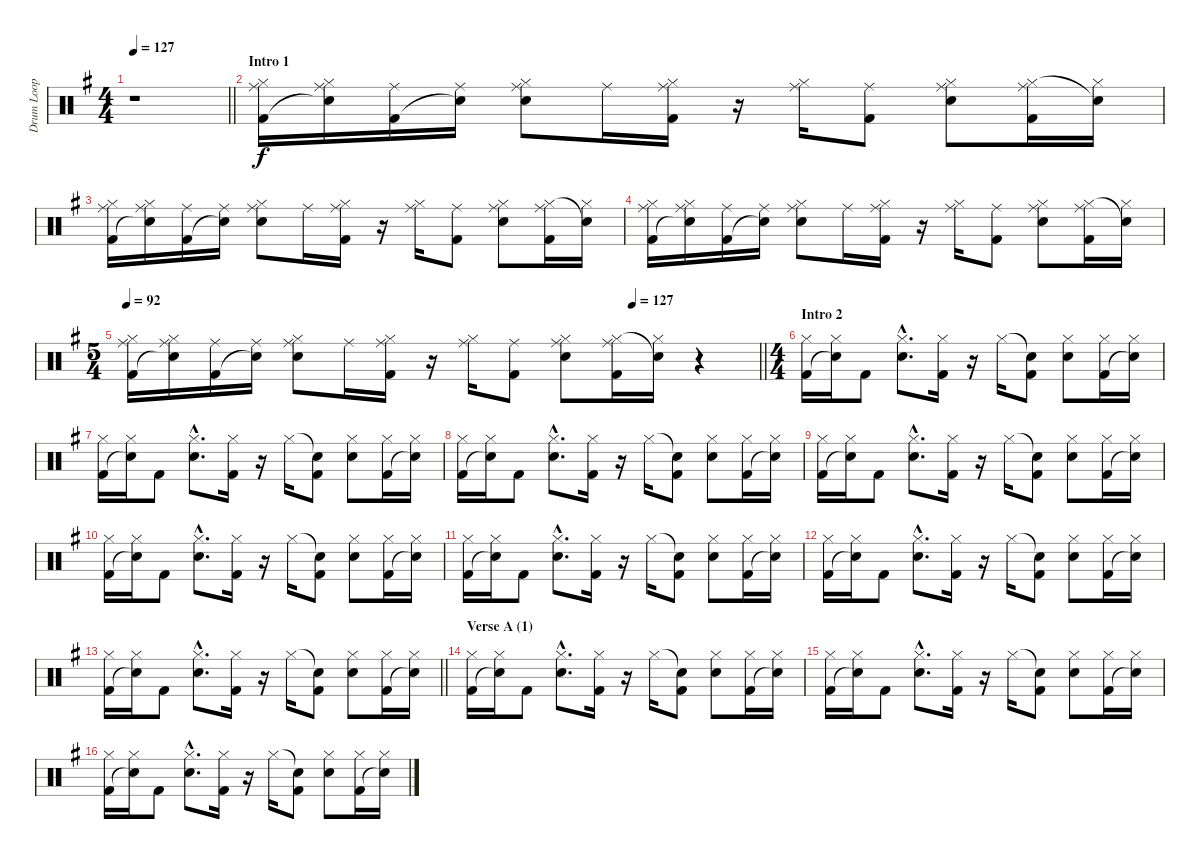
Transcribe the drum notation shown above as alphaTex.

\track ("Drum Loop" "Drum Loop") {instrument percussion}
\staff {score}
\articulation defaults
\ts (4 4)
\tempo 127
\clef neutral
\barLineRight lightlight
\ks eminor
r.1{dy f} |
\section ("" "Intro 1")
("Ride (middle)" "Hi-Hat (closed)" "Kick (hit) 2").16 ("Ride (middle)" "Hi-Hat (closed)" "Snare (hit)"{t}).16 ("Ride (middle)" "Kick (hit) 2").16 ("Ride (middle)" "Snare (hit)"{t}).16 ("Ride (middle)" "Hi-Hat (closed)" "Electric Snare (hit)").8 "Ride (middle)".16 ("Ride (middle)" "Hi-Hat (closed)" "Kick (hit) 2").16 r.16 ("Ride (middle)" "Hi-Hat (closed)").16 ("Ride (middle)" "Kick (hit) 2").8 ("Ride (middle)" "Hi-Hat (closed)" "Electric Snare (hit)").8 ("Ride (middle)" "Hi-Hat (closed)" "Kick (hit) 2").16 ("Hi-Hat (closed)" "Snare (hit)"{t}).16 |
("Ride (middle)" "Hi-Hat (closed)" "Kick (hit) 2").16 ("Ride (middle)" "Hi-Hat (closed)" "Snare (hit)"{t}).16 ("Ride (middle)" "Kick (hit) 2").16 ("Ride (middle)" "Snare (hit)"{t}).16 ("Ride (middle)" "Hi-Hat (closed)" "Electric Snare (hit)").8 "Ride (middle)".16 ("Ride (middle)" "Hi-Hat (closed)" "Kick (hit) 2").16 r.16 ("Ride (middle)" "Hi-Hat (closed)").16 ("Ride (middle)" "Kick (hit) 2").8 ("Ride (middle)" "Hi-Hat (closed)" "Electric Snare (hit)").8 ("Ride (middle)" "Hi-Hat (closed)" "Kick (hit) 2").16 ("Hi-Hat (closed)" "Snare (hit)"{t}).16 |
("Ride (middle)" "Hi-Hat (closed)" "Kick (hit) 2").16 ("Ride (middle)" "Hi-Hat (closed)" "Snare (hit)"{t}).16 ("Ride (middle)" "Kick (hit) 2").16 ("Ride (middle)" "Snare (hit)"{t}).16 ("Ride (middle)" "Hi-Hat (closed)" "Electric Snare (hit)").8 "Ride (middle)".16 ("Ride (middle)" "Hi-Hat (closed)" "Kick (hit) 2").16 r.16 ("Ride (middle)" "Hi-Hat (closed)").16 ("Ride (middle)" "Kick (hit) 2").8 ("Ride (middle)" "Hi-Hat (closed)" "Electric Snare (hit)").8 ("Ride (middle)" "Hi-Hat (closed)" "Kick (hit) 2").16 ("Hi-Hat (closed)" "Snare (hit)"{t}).16 |
\ts (5 4)
\tempo 92
\tempo (127 0.8)
\barLineRight lightlight
("Ride (middle)" "Hi-Hat (closed)" "Kick (hit) 2").16 ("Ride (middle)" "Hi-Hat (closed)" "Snare (hit)"{t}).16 ("Ride (middle)" "Kick (hit) 2").16 ("Ride (middle)" "Snare (hit)"{t}).16 ("Ride (middle)" "Hi-Hat (closed)" "Electric Snare (hit)").8 "Ride (middle)".16 ("Ride (middle)" "Hi-Hat (closed)" "Kick (hit) 2").16 r.16 ("Ride (middle)" "Hi-Hat (closed)").16 ("Ride (middle)" "Kick (hit) 2").8 ("Ride (middle)" "Hi-Hat (closed)" "Electric Snare (hit)").8 ("Ride (middle)" "Hi-Hat (closed)" "Kick (hit) 2").16 ("Hi-Hat (closed)" "Snare (hit)"{t}).16 r.4 |
\ts (4 4)
\section ("" "Intro 2")
("Hi-Hat (closed)" "Kick (hit) 2").16 ("Hi-Hat (closed)" "Snare (hit)"{t}).16 "Kick (hit) 2".8 ("Hi-Hat (closed)"{hac} "Electric Snare (hit)"{hac}).8{d} ("Hi-Hat (closed)" "Kick (hit) 2").16 r.16 "Hi-Hat (closed)".16 ("Snare (hit)"{t} "Kick (hit) 2").8 ("Hi-Hat (closed)" "Electric Snare (hit)").8 ("Hi-Hat (closed)" "Kick (hit) 2").16 ("Hi-Hat (closed)" "Snare (hit)"{t}).16 |
("Hi-Hat (closed)" "Kick (hit) 2").16 ("Hi-Hat (closed)" "Snare (hit)"{t}).16 "Kick (hit) 2".8 ("Hi-Hat (closed)"{hac} "Electric Snare (hit)"{hac}).8{d} ("Hi-Hat (closed)" "Kick (hit) 2").16 r.16 "Hi-Hat (closed)".16 ("Snare (hit)"{t} "Kick (hit) 2").8 ("Hi-Hat (closed)" "Electric Snare (hit)").8 ("Hi-Hat (closed)" "Kick (hit) 2").16 ("Hi-Hat (closed)" "Snare (hit)"{t}).16 |
("Hi-Hat (closed)" "Kick (hit) 2").16 ("Hi-Hat (closed)" "Snare (hit)"{t}).16 "Kick (hit) 2".8 ("Hi-Hat (closed)"{hac} "Electric Snare (hit)"{hac}).8{d} ("Hi-Hat (closed)" "Kick (hit) 2").16 r.16 "Hi-Hat (closed)".16 ("Snare (hit)"{t} "Kick (hit) 2").8 ("Hi-Hat (closed)" "Electric Snare (hit)").8 ("Hi-Hat (closed)" "Kick (hit) 2").16 ("Hi-Hat (closed)" "Snare (hit)"{t}).16 |
("Hi-Hat (closed)" "Kick (hit) 2").16 ("Hi-Hat (closed)" "Snare (hit)"{t}).16 "Kick (hit) 2".8 ("Hi-Hat (closed)"{hac} "Electric Snare (hit)"{hac}).8{d} ("Hi-Hat (closed)" "Kick (hit) 2").16 r.16 "Hi-Hat (closed)".16 ("Snare (hit)"{t} "Kick (hit) 2").8 ("Hi-Hat (closed)" "Electric Snare (hit)").8 ("Hi-Hat (closed)" "Kick (hit) 2").16 ("Hi-Hat (closed)" "Snare (hit)"{t}).16 |
("Hi-Hat (closed)" "Kick (hit) 2").16 ("Hi-Hat (closed)" "Snare (hit)"{t}).16 "Kick (hit) 2".8 ("Hi-Hat (closed)"{hac} "Electric Snare (hit)"{hac}).8{d} ("Hi-Hat (closed)" "Kick (hit) 2").16 r.16 "Hi-Hat (closed)".16 ("Snare (hit)"{t} "Kick (hit) 2").8 ("Hi-Hat (closed)" "Electric Snare (hit)").8 ("Hi-Hat (closed)" "Kick (hit) 2").16 ("Hi-Hat (closed)" "Snare (hit)"{t}).16 |
("Hi-Hat (closed)" "Kick (hit) 2").16 ("Hi-Hat (closed)" "Snare (hit)"{t}).16 "Kick (hit) 2".8 ("Hi-Hat (closed)"{hac} "Electric Snare (hit)"{hac}).8{d} ("Hi-Hat (closed)" "Kick (hit) 2").16 r.16 "Hi-Hat (closed)".16 ("Snare (hit)"{t} "Kick (hit) 2").8 ("Hi-Hat (closed)" "Electric Snare (hit)").8 ("Hi-Hat (closed)" "Kick (hit) 2").16 ("Hi-Hat (closed)" "Snare (hit)"{t}).16 |
("Hi-Hat (closed)" "Kick (hit) 2").16 ("Hi-Hat (closed)" "Snare (hit)"{t}).16 "Kick (hit) 2".8 ("Hi-Hat (closed)"{hac} "Electric Snare (hit)"{hac}).8{d} ("Hi-Hat (closed)" "Kick (hit) 2").16 r.16 "Hi-Hat (closed)".16 ("Snare (hit)"{t} "Kick (hit) 2").8 ("Hi-Hat (closed)" "Electric Snare (hit)").8 ("Hi-Hat (closed)" "Kick (hit) 2").16 ("Hi-Hat (closed)" "Snare (hit)"{t}).16 |
\barLineRight lightlight
("Hi-Hat (closed)" "Kick (hit) 2").16 ("Hi-Hat (closed)" "Snare (hit)"{t}).16 "Kick (hit) 2".8 ("Hi-Hat (closed)"{hac} "Electric Snare (hit)"{hac}).8{d} ("Hi-Hat (closed)" "Kick (hit) 2").16 r.16 "Hi-Hat (closed)".16 ("Snare (hit)"{t} "Kick (hit) 2").8 ("Hi-Hat (closed)" "Electric Snare (hit)").8 ("Hi-Hat (closed)" "Kick (hit) 2").16 ("Hi-Hat (closed)" "Snare (hit)"{t}).16 |
\section ("" "Verse A (1)")
("Hi-Hat (closed)" "Kick (hit) 2").16 ("Hi-Hat (closed)" "Snare (hit)"{t}).16 "Kick (hit) 2".8 ("Hi-Hat (closed)"{hac} "Electric Snare (hit)"{hac}).8{d} ("Hi-Hat (closed)" "Kick (hit) 2").16 r.16 "Hi-Hat (closed)".16 ("Snare (hit)"{t} "Kick (hit) 2").8 ("Hi-Hat (closed)" "Electric Snare (hit)").8 ("Hi-Hat (closed)" "Kick (hit) 2").16 ("Hi-Hat (closed)" "Snare (hit)"{t}).16 |
("Hi-Hat (closed)" "Kick (hit) 2").16 ("Hi-Hat (closed)" "Snare (hit)"{t}).16 "Kick (hit) 2".8 ("Hi-Hat (closed)"{hac} "Electric Snare (hit)"{hac}).8{d} ("Hi-Hat (closed)" "Kick (hit) 2").16 r.16 "Hi-Hat (closed)".16 ("Snare (hit)"{t} "Kick (hit) 2").8 ("Hi-Hat (closed)" "Electric Snare (hit)").8 ("Hi-Hat (closed)" "Kick (hit) 2").16 ("Hi-Hat (closed)" "Snare (hit)"{t}).16 |
("Hi-Hat (closed)" "Kick (hit) 2").16 ("Hi-Hat (closed)" "Snare (hit)"{t}).16 "Kick (hit) 2".8 ("Hi-Hat (closed)"{hac} "Electric Snare (hit)"{hac}).8{d} ("Hi-Hat (closed)" "Kick (hit) 2").16 r.16 "Hi-Hat (closed)".16 ("Snare (hit)"{t} "Kick (hit) 2").8 ("Hi-Hat (closed)" "Electric Snare (hit)").8 ("Hi-Hat (closed)" "Kick (hit) 2").16 ("Hi-Hat (closed)" "Snare (hit)"{t}).16
